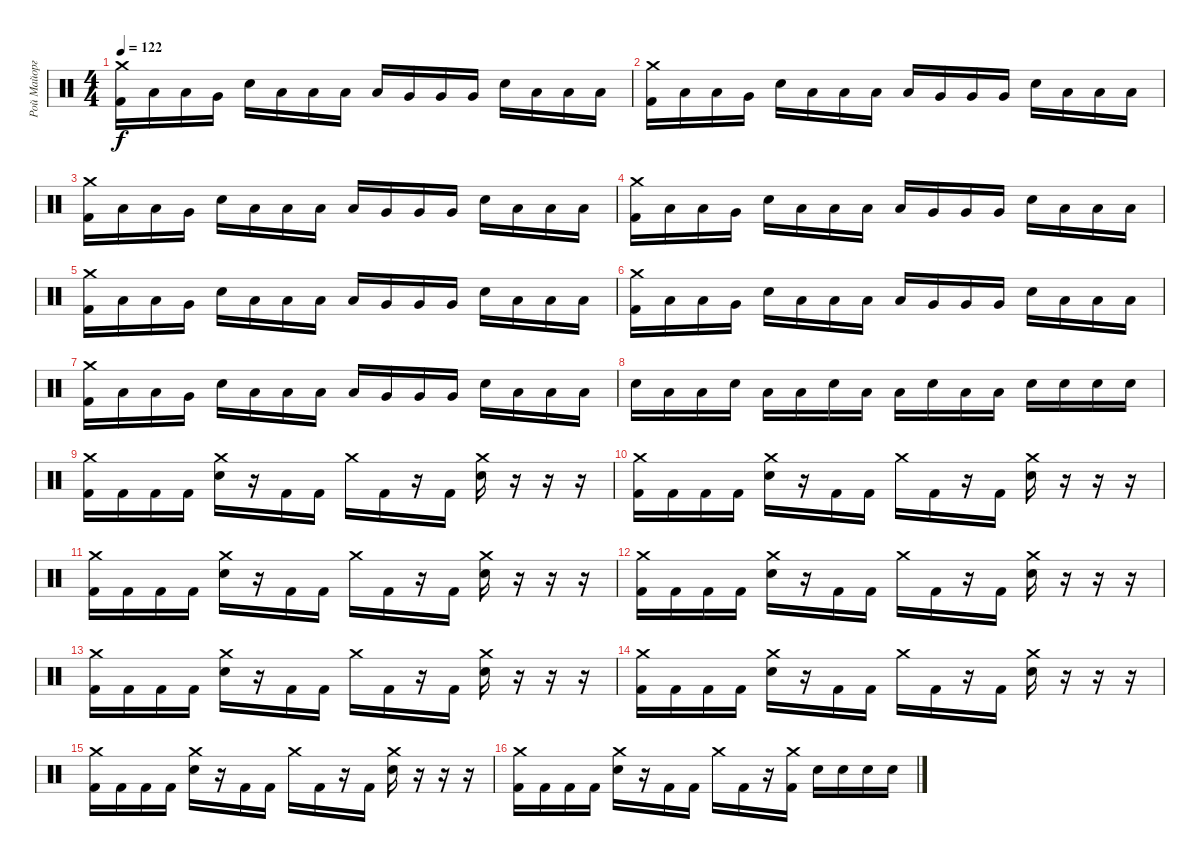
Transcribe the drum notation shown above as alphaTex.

\track ("Рой Майорга" "Рой Майорг") {instrument percussion}
\staff {score}
\articulation defaults
\ts (4 4)
\tempo 122
\clef neutral
\ks c
("Crash medium (hit)" "Kick (hit) 2").16{dy f} "Low Tom (hit)".16 "Low Tom (hit)".16 "Very Low Tom (hit)".16 "Electric Snare (hit)".16 "Low Tom (hit)".16 "Low Tom (hit)".16 "Low Tom (hit)".16 "Low Tom (hit)".16 "Very Low Tom (hit)".16 "Very Low Tom (hit)".16 "Very Low Tom (hit)".16 "Electric Snare (hit)".16 "Low Tom (hit)".16 "Low Tom (hit)".16 "Low Tom (hit)".16 |
("Crash medium (hit)" "Kick (hit) 2").16 "Low Tom (hit)".16 "Low Tom (hit)".16 "Very Low Tom (hit)".16 "Electric Snare (hit)".16 "Low Tom (hit)".16 "Low Tom (hit)".16 "Low Tom (hit)".16 "Low Tom (hit)".16 "Very Low Tom (hit)".16 "Very Low Tom (hit)".16 "Very Low Tom (hit)".16 "Electric Snare (hit)".16 "Low Tom (hit)".16 "Low Tom (hit)".16 "Low Tom (hit)".16 |
("Crash medium (hit)" "Kick (hit) 2").16 "Low Tom (hit)".16 "Low Tom (hit)".16 "Very Low Tom (hit)".16 "Electric Snare (hit)".16 "Low Tom (hit)".16 "Low Tom (hit)".16 "Low Tom (hit)".16 "Low Tom (hit)".16 "Very Low Tom (hit)".16 "Very Low Tom (hit)".16 "Very Low Tom (hit)".16 "Electric Snare (hit)".16 "Low Tom (hit)".16 "Low Tom (hit)".16 "Low Tom (hit)".16 |
("Crash medium (hit)" "Kick (hit) 2").16 "Low Tom (hit)".16 "Low Tom (hit)".16 "Very Low Tom (hit)".16 "Electric Snare (hit)".16 "Low Tom (hit)".16 "Low Tom (hit)".16 "Low Tom (hit)".16 "Low Tom (hit)".16 "Very Low Tom (hit)".16 "Very Low Tom (hit)".16 "Very Low Tom (hit)".16 "Electric Snare (hit)".16 "Low Tom (hit)".16 "Low Tom (hit)".16 "Low Tom (hit)".16 |
("Crash medium (hit)" "Kick (hit) 2").16 "Low Tom (hit)".16 "Low Tom (hit)".16 "Very Low Tom (hit)".16 "Electric Snare (hit)".16 "Low Tom (hit)".16 "Low Tom (hit)".16 "Low Tom (hit)".16 "Low Tom (hit)".16 "Very Low Tom (hit)".16 "Very Low Tom (hit)".16 "Very Low Tom (hit)".16 "Electric Snare (hit)".16 "Low Tom (hit)".16 "Low Tom (hit)".16 "Low Tom (hit)".16 |
("Crash medium (hit)" "Kick (hit) 2").16 "Low Tom (hit)".16 "Low Tom (hit)".16 "Very Low Tom (hit)".16 "Electric Snare (hit)".16 "Low Tom (hit)".16 "Low Tom (hit)".16 "Low Tom (hit)".16 "Low Tom (hit)".16 "Very Low Tom (hit)".16 "Very Low Tom (hit)".16 "Very Low Tom (hit)".16 "Electric Snare (hit)".16 "Low Tom (hit)".16 "Low Tom (hit)".16 "Low Tom (hit)".16 |
("Crash medium (hit)" "Kick (hit) 2").16 "Low Tom (hit)".16 "Low Tom (hit)".16 "Very Low Tom (hit)".16 "Electric Snare (hit)".16 "Low Tom (hit)".16 "Low Tom (hit)".16 "Low Tom (hit)".16 "Low Tom (hit)".16 "Very Low Tom (hit)".16 "Very Low Tom (hit)".16 "Very Low Tom (hit)".16 "Electric Snare (hit)".16 "Low Tom (hit)".16 "Low Tom (hit)".16 "Low Tom (hit)".16 |
"Electric Snare (hit)".16 "Low Tom (hit)".16 "Low Tom (hit)".16 "Electric Snare (hit)".16 "Low Tom (hit)".16 "Low Tom (hit)".16 "Electric Snare (hit)".16 "Low Tom (hit)".16 "Low Tom (hit)".16 "Electric Snare (hit)".16 "Low Tom (hit)".16 "Low Tom (hit)".16 "Electric Snare (hit)".16 "Electric Snare (hit)".16 "Electric Snare (hit)".16 "Electric Snare (hit)".16 |
("Crash medium (hit)" "Kick (hit) 2").16 "Kick (hit) 2".16 "Kick (hit) 2".16 "Kick (hit) 2".16 ("Crash medium (hit)" "Electric Snare (hit)").16 r.16 "Kick (hit) 2".16 "Kick (hit) 2".16 "Crash medium (hit)".16 "Kick (hit) 2".16 r.16 "Kick (hit) 2".16 ("Crash medium (hit)" "Electric Snare (hit)").16 r.16 r.16 r.16 |
("Crash medium (hit)" "Kick (hit) 2").16 "Kick (hit) 2".16 "Kick (hit) 2".16 "Kick (hit) 2".16 ("Crash medium (hit)" "Electric Snare (hit)").16 r.16 "Kick (hit) 2".16 "Kick (hit) 2".16 "Crash medium (hit)".16 "Kick (hit) 2".16 r.16 "Kick (hit) 2".16 ("Crash medium (hit)" "Electric Snare (hit)").16 r.16 r.16 r.16 |
("Crash medium (hit)" "Kick (hit) 2").16 "Kick (hit) 2".16 "Kick (hit) 2".16 "Kick (hit) 2".16 ("Crash medium (hit)" "Electric Snare (hit)").16 r.16 "Kick (hit) 2".16 "Kick (hit) 2".16 "Crash medium (hit)".16 "Kick (hit) 2".16 r.16 "Kick (hit) 2".16 ("Crash medium (hit)" "Electric Snare (hit)").16 r.16 r.16 r.16 |
("Crash medium (hit)" "Kick (hit) 2").16 "Kick (hit) 2".16 "Kick (hit) 2".16 "Kick (hit) 2".16 ("Crash medium (hit)" "Electric Snare (hit)").16 r.16 "Kick (hit) 2".16 "Kick (hit) 2".16 "Crash medium (hit)".16 "Kick (hit) 2".16 r.16 "Kick (hit) 2".16 ("Crash medium (hit)" "Electric Snare (hit)").16 r.16 r.16 r.16 |
("Crash medium (hit)" "Kick (hit) 2").16 "Kick (hit) 2".16 "Kick (hit) 2".16 "Kick (hit) 2".16 ("Crash medium (hit)" "Electric Snare (hit)").16 r.16 "Kick (hit) 2".16 "Kick (hit) 2".16 "Crash medium (hit)".16 "Kick (hit) 2".16 r.16 "Kick (hit) 2".16 ("Crash medium (hit)" "Electric Snare (hit)").16 r.16 r.16 r.16 |
("Crash medium (hit)" "Kick (hit) 2").16 "Kick (hit) 2".16 "Kick (hit) 2".16 "Kick (hit) 2".16 ("Crash medium (hit)" "Electric Snare (hit)").16 r.16 "Kick (hit) 2".16 "Kick (hit) 2".16 "Crash medium (hit)".16 "Kick (hit) 2".16 r.16 "Kick (hit) 2".16 ("Crash medium (hit)" "Electric Snare (hit)").16 r.16 r.16 r.16 |
("Crash medium (hit)" "Kick (hit) 2").16 "Kick (hit) 2".16 "Kick (hit) 2".16 "Kick (hit) 2".16 ("Crash medium (hit)" "Electric Snare (hit)").16 r.16 "Kick (hit) 2".16 "Kick (hit) 2".16 "Crash medium (hit)".16 "Kick (hit) 2".16 r.16 "Kick (hit) 2".16 ("Crash medium (hit)" "Electric Snare (hit)").16 r.16 r.16 r.16 |
("Crash medium (hit)" "Kick (hit) 2").16 "Kick (hit) 2".16 "Kick (hit) 2".16 "Kick (hit) 2".16 ("Crash medium (hit)" "Electric Snare (hit)").16 r.16 "Kick (hit) 2".16 "Kick (hit) 2".16 "Crash medium (hit)".16 "Kick (hit) 2".16 r.16 ("Crash medium (hit)" "Kick (hit) 2").16 "Electric Snare (hit)".16 "Electric Snare (hit)".16 "Electric Snare (hit)".16 "Electric Snare (hit)".16
